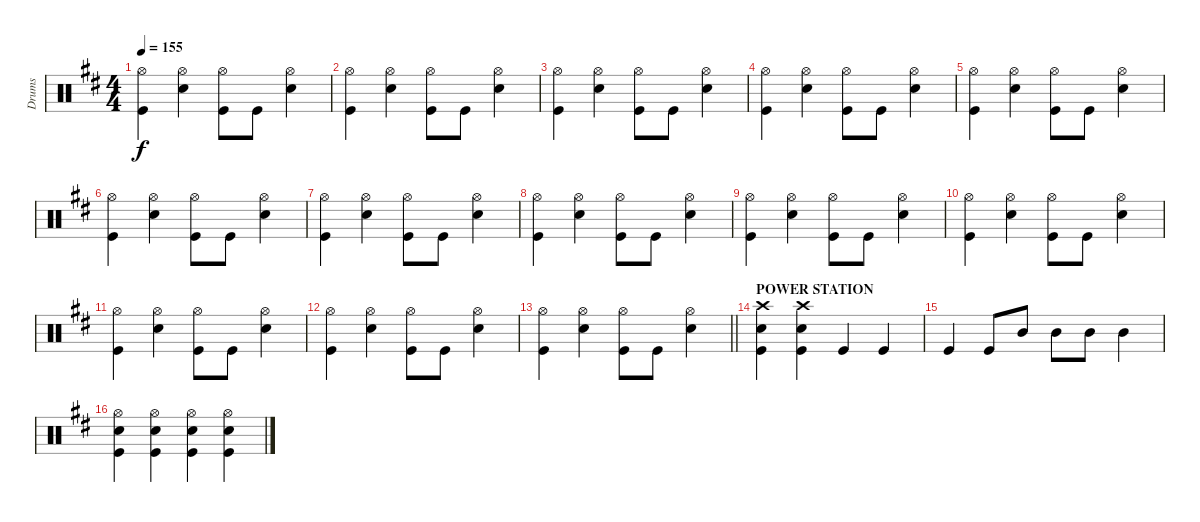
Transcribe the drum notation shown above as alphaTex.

\track ("Drums" "Drums") {instrument percussion}
\staff {score}
\articulation defaults
\ts (4 4)
\tempo 155
\clef neutral
\ks d
("Hi-Hat (open)" "Kick (hit)").4{dy f} ("Hi-Hat (open)" "Snare (hit) 2").4 ("Hi-Hat (open)" "Kick (hit)").8 "Kick (hit)".8 ("Hi-Hat (open)" "Snare (hit) 2").4 |
("Hi-Hat (open)" "Kick (hit)").4 ("Hi-Hat (open)" "Snare (hit) 2").4 ("Hi-Hat (open)" "Kick (hit)").8 "Kick (hit)".8 ("Hi-Hat (open)" "Snare (hit) 2").4 |
("Hi-Hat (open)" "Kick (hit)").4 ("Hi-Hat (open)" "Snare (hit) 2").4 ("Hi-Hat (open)" "Kick (hit)").8 "Kick (hit)".8 ("Hi-Hat (open)" "Snare (hit) 2").4 |
("Hi-Hat (open)" "Kick (hit)").4 ("Hi-Hat (open)" "Snare (hit) 2").4 ("Hi-Hat (open)" "Kick (hit)").8 "Kick (hit)".8 ("Hi-Hat (open)" "Snare (hit) 2").4 |
("Hi-Hat (open)" "Kick (hit)").4 ("Hi-Hat (open)" "Snare (hit) 2").4 ("Hi-Hat (open)" "Kick (hit)").8 "Kick (hit)".8 ("Hi-Hat (open)" "Snare (hit) 2").4 |
("Hi-Hat (open)" "Kick (hit)").4 ("Hi-Hat (open)" "Snare (hit) 2").4 ("Hi-Hat (open)" "Kick (hit)").8 "Kick (hit)".8 ("Hi-Hat (open)" "Snare (hit) 2").4 |
("Hi-Hat (open)" "Kick (hit)").4 ("Hi-Hat (open)" "Snare (hit) 2").4 ("Hi-Hat (open)" "Kick (hit)").8 "Kick (hit)".8 ("Hi-Hat (open)" "Snare (hit) 2").4 |
("Hi-Hat (open)" "Kick (hit)").4 ("Hi-Hat (open)" "Snare (hit) 2").4 ("Hi-Hat (open)" "Kick (hit)").8 "Kick (hit)".8 ("Hi-Hat (open)" "Snare (hit) 2").4 |
("Hi-Hat (open)" "Kick (hit)").4 ("Hi-Hat (open)" "Snare (hit) 2").4 ("Hi-Hat (open)" "Kick (hit)").8 "Kick (hit)".8 ("Hi-Hat (open)" "Snare (hit) 2").4 |
("Hi-Hat (open)" "Kick (hit)").4 ("Hi-Hat (open)" "Snare (hit) 2").4 ("Hi-Hat (open)" "Kick (hit)").8 "Kick (hit)".8 ("Hi-Hat (open)" "Snare (hit) 2").4 |
("Hi-Hat (open)" "Kick (hit)").4 ("Hi-Hat (open)" "Snare (hit) 2").4 ("Hi-Hat (open)" "Kick (hit)").8 "Kick (hit)".8 ("Hi-Hat (open)" "Snare (hit) 2").4 |
("Hi-Hat (open)" "Kick (hit)").4 ("Hi-Hat (open)" "Snare (hit) 2").4 ("Hi-Hat (open)" "Kick (hit)").8 "Kick (hit)".8 ("Hi-Hat (open)" "Snare (hit) 2").4 |
\barLineRight lightlight
("Hi-Hat (open)" "Kick (hit)").4 ("Hi-Hat (open)" "Snare (hit) 2").4 ("Hi-Hat (open)" "Kick (hit)").8 "Kick (hit)".8 ("Hi-Hat (open)" "Snare (hit) 2").4 |
\section ("" "POWER STATION")
("Crash high (hit)" "Snare (hit) 2" "Kick (hit)").4 ("Crash high (hit)" "Snare (hit) 2" "Kick (hit)").4 "Kick (hit)".4 "Kick (hit)".4 |
"Kick (hit)".4 "Kick (hit)".8 "Mid Tom (hit)".8 "Mid Tom (hit)".8 "Mid Tom (hit)".8 "Mid Tom (hit)".4 |
("Hi-Hat (open)" "Snare (hit) 2" "Kick (hit)").4 ("Hi-Hat (open)" "Snare (hit) 2" "Kick (hit)").4 ("Hi-Hat (open)" "Snare (hit) 2" "Kick (hit)").4 ("Hi-Hat (open)" "Snare (hit) 2" "Kick (hit)").4
